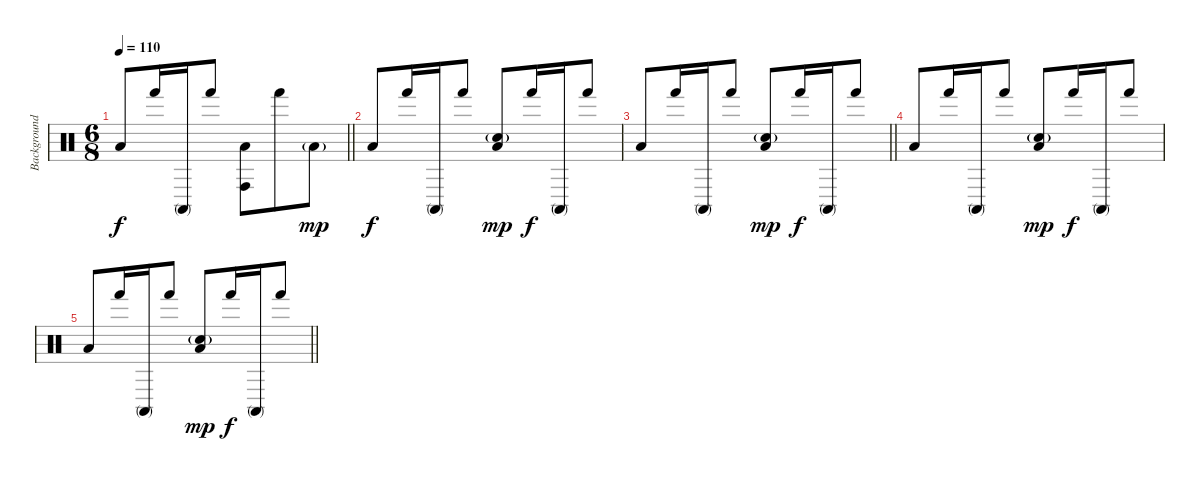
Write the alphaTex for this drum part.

\track ("Background Percussion" "Background") {instrument percussion}
\staff {score}
\articulation defaults
\ts (6 8)
\tempo 110
\clef neutral
\barLineRight lightlight
\ks c "Low Tom (hit)".8{dy f} "Hand (hit)".16 "Conga high (mute)".16 "Hand (hit)".8
("Conga high (hit)" "Low Tom (hit)").8 "Hand (hit)".8 "Low Tom (hit)"{g}.8{dy mp} |
"Low Tom (hit)".8{dy f} "Hand (hit)".16 "Conga high (mute)".16 "Hand (hit)".8 ("Snare (hit) 2"{g} "Low Tom (hit)").8{dy mp} "Hand (hit)".16{dy f} "Conga high (mute)".16 "Hand (hit)".8 |
\barLineRight lightlight "Low Tom (hit)".8 "Hand (hit)".16 "Conga high (mute)".16 "Hand (hit)".8
("Snare (hit) 2"{g} "Low Tom (hit)").8{dy mp} "Hand (hit)".16{dy f} "Conga high (mute)".16 "Hand (hit)".8 |
"Low Tom (hit)".8 "Hand (hit)".16 "Conga high (mute)".16 "Hand (hit)".8 ("Snare (hit) 2"{g} "Low Tom (hit)").8{dy mp} "Hand (hit)".16{dy f} "Conga high (mute)".16 "Hand (hit)".8 |
\barLineRight lightlight "Low Tom (hit)".8 "Hand (hit)".16 "Conga high (mute)".16 "Hand (hit)".8
("Snare (hit) 2"{g} "Low Tom (hit)").8{dy mp} "Hand (hit)".16{dy f} "Conga high (mute)".16 "Hand (hit)".8
